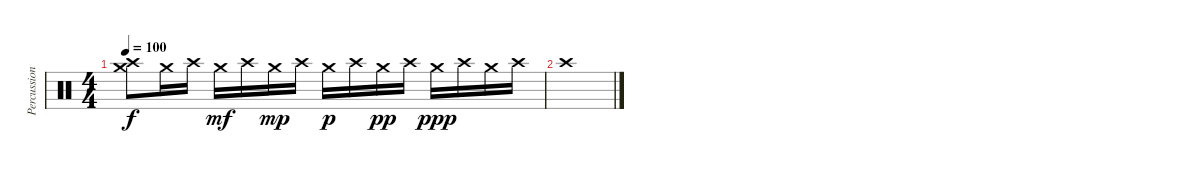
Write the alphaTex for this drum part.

\track ("Percussion" "Percussion") {instrument percussion}
\staff {score}
\articulation defaults
\ts (4 4)
\tempo 100
\clef neutral
\ks c
("Crash medium (hit)" "Crash high (hit)").8{dy f} "Crash medium (hit)".16 "Crash high (hit)".16 "Crash medium (hit)".16{dy mf} "Crash high (hit)".16 "Crash medium (hit)".16{dy mp} "Crash high (hit)".16 "Crash medium (hit)".16{dy p} "Crash high (hit)".16 "Crash medium (hit)".16{dy pp} "Crash high (hit)".16 "Crash medium (hit)".16{dy ppp} "Crash high (hit)".16 "Crash medium (hit)".16 "Crash high (hit)".16 |
"Crash high (hit)".1
